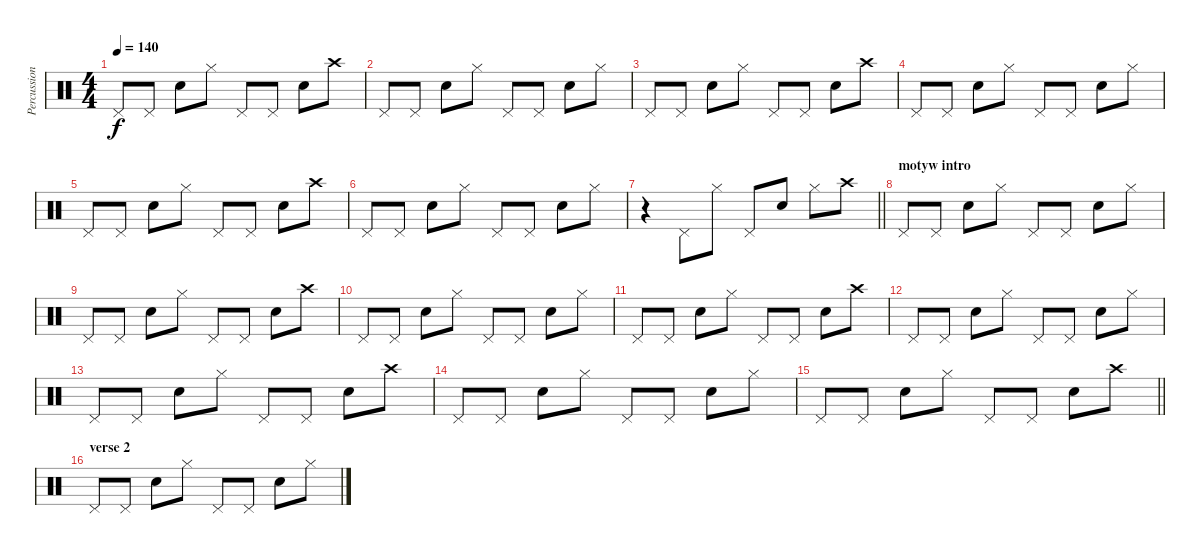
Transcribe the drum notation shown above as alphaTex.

\track ("Percussion" "Percussion") {instrument percussion}
\staff {score}
\articulation defaults
\ts (4 4)
\tempo 140
\clef neutral
\ks c "Pedal Hi-Hat (hit)".8{dy f} "Pedal Hi-Hat (hit)".8 "Snare (hit) 2".8 "Hi-Hat (closed)".8 "Pedal Hi-Hat (hit)".8 "Pedal Hi-Hat (hit)".8 "Snare (hit) 2".8 "Crash high (hit)".8
|
"Pedal Hi-Hat (hit)".8 "Pedal Hi-Hat (hit)".8 "Snare (hit) 2".8 "Hi-Hat (closed)".8 "Pedal Hi-Hat (hit)".8 "Pedal Hi-Hat (hit)".8 "Snare (hit) 2".8 "Hi-Hat (closed)".8 |
"Pedal Hi-Hat (hit)".8 "Pedal Hi-Hat (hit)".8 "Snare (hit) 2".8 "Hi-Hat (closed)".8 "Pedal Hi-Hat (hit)".8 "Pedal Hi-Hat (hit)".8 "Snare (hit) 2".8 "Crash high (hit)".8 |
"Pedal Hi-Hat (hit)".8 "Pedal Hi-Hat (hit)".8 "Snare (hit) 2".8 "Hi-Hat (closed)".8 "Pedal Hi-Hat (hit)".8 "Pedal Hi-Hat (hit)".8 "Snare (hit) 2".8 "Hi-Hat (closed)".8 |
"Pedal Hi-Hat (hit)".8 "Pedal Hi-Hat (hit)".8 "Snare (hit) 2".8 "Hi-Hat (closed)".8 "Pedal Hi-Hat (hit)".8 "Pedal Hi-Hat (hit)".8 "Snare (hit) 2".8 "Crash high (hit)".8 |
"Pedal Hi-Hat (hit)".8 "Pedal Hi-Hat (hit)".8 "Snare (hit) 2".8 "Hi-Hat (closed)".8 "Pedal Hi-Hat (hit)".8 "Pedal Hi-Hat (hit)".8 "Snare (hit) 2".8 "Hi-Hat (closed)".8 |
\barLineRight lightlight
r.4 "Pedal Hi-Hat (hit)".8 "Hi-Hat (closed)".8 "Pedal Hi-Hat (hit)".8 "Snare (hit) 2".8 "Hi-Hat (closed)".8 "Crash high (hit)".8 |
\section ("" "motyw intro")
"Pedal Hi-Hat (hit)".8 "Pedal Hi-Hat (hit)".8 "Snare (hit) 2".8 "Hi-Hat (closed)".8 "Pedal Hi-Hat (hit)".8 "Pedal Hi-Hat (hit)".8 "Snare (hit) 2".8 "Hi-Hat (closed)".8 |
"Pedal Hi-Hat (hit)".8 "Pedal Hi-Hat (hit)".8 "Snare (hit) 2".8 "Hi-Hat (closed)".8 "Pedal Hi-Hat (hit)".8 "Pedal Hi-Hat (hit)".8 "Snare (hit) 2".8 "Crash high (hit)".8 |
"Pedal Hi-Hat (hit)".8 "Pedal Hi-Hat (hit)".8 "Snare (hit) 2".8 "Hi-Hat (closed)".8 "Pedal Hi-Hat (hit)".8 "Pedal Hi-Hat (hit)".8 "Snare (hit) 2".8 "Hi-Hat (closed)".8 |
"Pedal Hi-Hat (hit)".8 "Pedal Hi-Hat (hit)".8 "Snare (hit) 2".8 "Hi-Hat (closed)".8 "Pedal Hi-Hat (hit)".8 "Pedal Hi-Hat (hit)".8 "Snare (hit) 2".8 "Crash high (hit)".8 |
"Pedal Hi-Hat (hit)".8 "Pedal Hi-Hat (hit)".8 "Snare (hit) 2".8 "Hi-Hat (closed)".8 "Pedal Hi-Hat (hit)".8 "Pedal Hi-Hat (hit)".8 "Snare (hit) 2".8 "Hi-Hat (closed)".8 |
"Pedal Hi-Hat (hit)".8 "Pedal Hi-Hat (hit)".8 "Snare (hit) 2".8 "Hi-Hat (closed)".8 "Pedal Hi-Hat (hit)".8 "Pedal Hi-Hat (hit)".8 "Snare (hit) 2".8 "Crash high (hit)".8 |
"Pedal Hi-Hat (hit)".8 "Pedal Hi-Hat (hit)".8 "Snare (hit) 2".8 "Hi-Hat (closed)".8 "Pedal Hi-Hat (hit)".8 "Pedal Hi-Hat (hit)".8 "Snare (hit) 2".8 "Hi-Hat (closed)".8 |
\barLineRight lightlight "Pedal Hi-Hat (hit)".8 "Pedal Hi-Hat (hit)".8 "Snare (hit) 2".8 "Hi-Hat (closed)".8 "Pedal Hi-Hat (hit)".8 "Pedal Hi-Hat (hit)".8 "Snare (hit) 2".8 "Crash high (hit)".8
|
\section ("" "verse 2")
"Pedal Hi-Hat (hit)".8 "Pedal Hi-Hat (hit)".8 "Snare (hit) 2".8 "Hi-Hat (closed)".8 "Pedal Hi-Hat (hit)".8 "Pedal Hi-Hat (hit)".8 "Snare (hit) 2".8 "Hi-Hat (closed)".8
